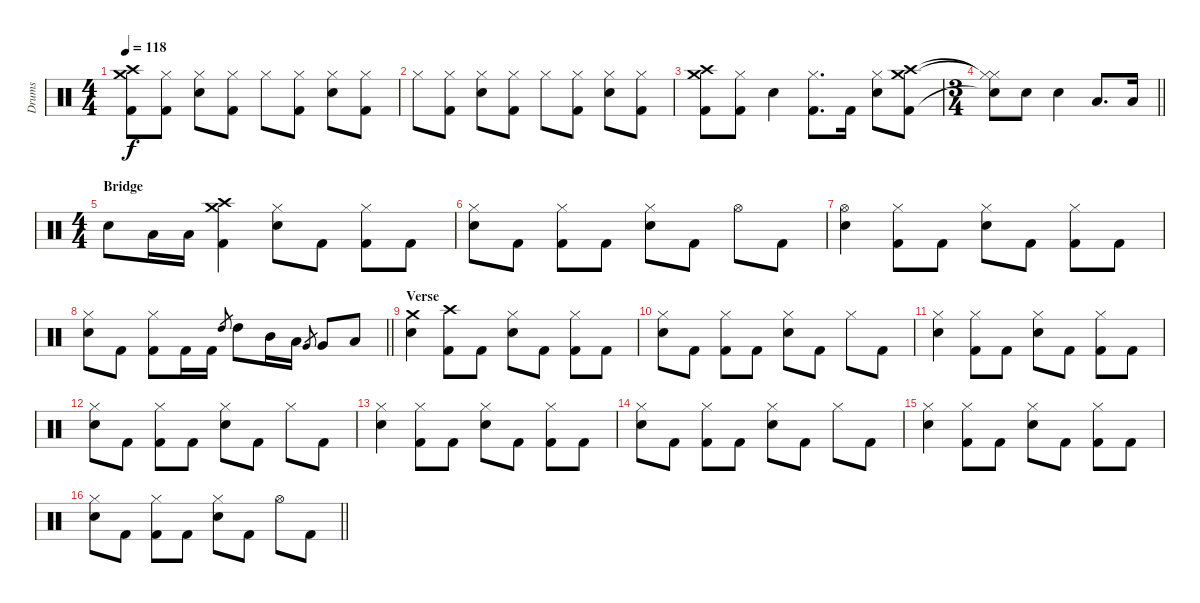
\track ("Drums" "Drums") {instrument percussion}
\staff {score}
\articulation defaults
\ts (4 4)
\tempo 118
\clef neutral
\ks c
("Crash medium (hit)" "Crash high (hit)" "Kick (hit) 2").8{dy f} ("Hi-Hat (closed)" "Kick (hit) 2").8 ("Hi-Hat (closed)" "Snare (hit) 2").8 ("Hi-Hat (closed)" "Kick (hit) 2").8 "Hi-Hat (closed)".8 ("Hi-Hat (closed)" "Kick (hit) 2").8 ("Hi-Hat (closed)" "Snare (hit) 2").8 ("Hi-Hat (closed)" "Kick (hit) 2").8 |
"Hi-Hat (closed)".8 ("Hi-Hat (closed)" "Kick (hit) 2").8 ("Hi-Hat (closed)" "Snare (hit) 2").8 ("Hi-Hat (closed)" "Kick (hit) 2").8 "Hi-Hat (closed)".8 ("Hi-Hat (closed)" "Kick (hit) 2").8 ("Hi-Hat (closed)" "Snare (hit) 2").8 ("Hi-Hat (closed)" "Kick (hit) 2").8 |
("Crash medium (hit)" "Crash high (hit)" "Kick (hit) 2").8 ("Hi-Hat (closed)" "Kick (hit) 2").8 "Snare (hit) 2".4 ("Hi-Hat (closed)" "Kick (hit) 2").8{d} "Kick (hit) 2".16 ("Hi-Hat (closed)" "Snare (hit) 2").8 ("Crash medium (hit)" "Crash high (hit)" "Kick (hit) 2").8 |
\ts (3 4)
\barLineRight lightlight
("Hi-Hat (closed)"{t} "Hi-Hat (closed)"{t} "Snare (hit)"{t}).8 "Snare (hit) 2".8 "Snare (hit) 2".4 "Low Floor Tom (hit)".8{d} "Low Floor Tom (hit)".16 |
\ts (4 4)
\section ("" "Bridge")
"Snare (hit) 2".8 "Low Floor Tom (hit)".16 "Low Floor Tom (hit)".16 ("Crash medium (hit)" "Crash high (hit)" "Kick (hit) 2").4 ("Hi-Hat (closed)" "Snare (hit) 2").8 "Kick (hit) 2".8 ("Hi-Hat (closed)" "Kick (hit) 2").8 "Kick (hit) 2".8 |
("Hi-Hat (closed)" "Snare (hit) 2").8 "Kick (hit) 2".8 ("Hi-Hat (closed)" "Kick (hit) 2").8 "Kick (hit) 2".8 ("Hi-Hat (closed)" "Snare (hit) 2").8 "Kick (hit) 2".8 "Hi-Hat (open)".8 "Kick (hit) 2".8 |
("Hi-Hat (open)" "Snare (hit) 2").4 ("Hi-Hat (closed)" "Kick (hit) 2").8 "Kick (hit) 2".8 ("Hi-Hat (closed)" "Snare (hit) 2").8 "Kick (hit) 2".8 ("Hi-Hat (closed)" "Kick (hit) 2").8 "Kick (hit) 2".8 |
\barLineRight lightlight
("Hi-Hat (closed)" "Snare (hit) 2").8 "Kick (hit) 2".8 ("Hi-Hat (closed)" "Kick (hit) 2").8 "Kick (hit) 2".16 "Kick (hit) 2".16 "High Tom (hit)".8{gr} "High Tom (hit)".8 "Mid Tom (hit)".16 "Low Tom (hit)".16 "Very Low Tom (hit)".8{gr} "Very Low Tom (hit)".8 "Low Floor Tom (hit)".8 |
\section ("" "Verse")
("Crash medium (hit)" "Snare (hit) 2").4 ("Crash high (hit)" "Kick (hit) 2").8 "Kick (hit) 2".8 ("Hi-Hat (closed)" "Snare (hit) 2").8 "Kick (hit) 2".8 ("Hi-Hat (closed)" "Kick (hit) 2").8 "Kick (hit) 2".8 |
("Hi-Hat (closed)" "Snare (hit) 2").8 "Kick (hit) 2".8 ("Hi-Hat (closed)" "Kick (hit) 2").8 "Kick (hit) 2".8 ("Hi-Hat (closed)" "Snare (hit) 2").8 "Kick (hit) 2".8 "Hi-Hat (closed)".8 "Kick (hit) 2".8 |
("Hi-Hat (closed)" "Snare (hit) 2").4 ("Hi-Hat (closed)" "Kick (hit) 2").8 "Kick (hit) 2".8 ("Hi-Hat (closed)" "Snare (hit) 2").8 "Kick (hit) 2".8 ("Hi-Hat (closed)" "Kick (hit) 2").8 "Kick (hit) 2".8 |
("Hi-Hat (closed)" "Snare (hit) 2").8 "Kick (hit) 2".8 ("Hi-Hat (closed)" "Kick (hit) 2").8 "Kick (hit) 2".8 ("Hi-Hat (closed)" "Snare (hit) 2").8 "Kick (hit) 2".8 "Hi-Hat (closed)".8 "Kick (hit) 2".8 |
("Hi-Hat (closed)" "Snare (hit) 2").4 ("Hi-Hat (closed)" "Kick (hit) 2").8 "Kick (hit) 2".8 ("Hi-Hat (closed)" "Snare (hit) 2").8 "Kick (hit) 2".8 ("Hi-Hat (closed)" "Kick (hit) 2").8 "Kick (hit) 2".8 |
("Hi-Hat (closed)" "Snare (hit) 2").8 "Kick (hit) 2".8 ("Hi-Hat (closed)" "Kick (hit) 2").8 "Kick (hit) 2".8 ("Hi-Hat (closed)" "Snare (hit) 2").8 "Kick (hit) 2".8 "Hi-Hat (closed)".8 "Kick (hit) 2".8 |
("Hi-Hat (closed)" "Snare (hit) 2").4 ("Hi-Hat (closed)" "Kick (hit) 2").8 "Kick (hit) 2".8 ("Hi-Hat (closed)" "Snare (hit) 2").8 "Kick (hit) 2".8 ("Hi-Hat (closed)" "Kick (hit) 2").8 "Kick (hit) 2".8 |
\barLineRight lightlight
("Hi-Hat (closed)" "Snare (hit) 2").8 "Kick (hit) 2".8 ("Hi-Hat (closed)" "Kick (hit) 2").8 "Kick (hit) 2".8 ("Hi-Hat (closed)" "Snare (hit) 2").8 "Kick (hit) 2".8 "Hi-Hat (open)".8 "Kick (hit) 2".8
